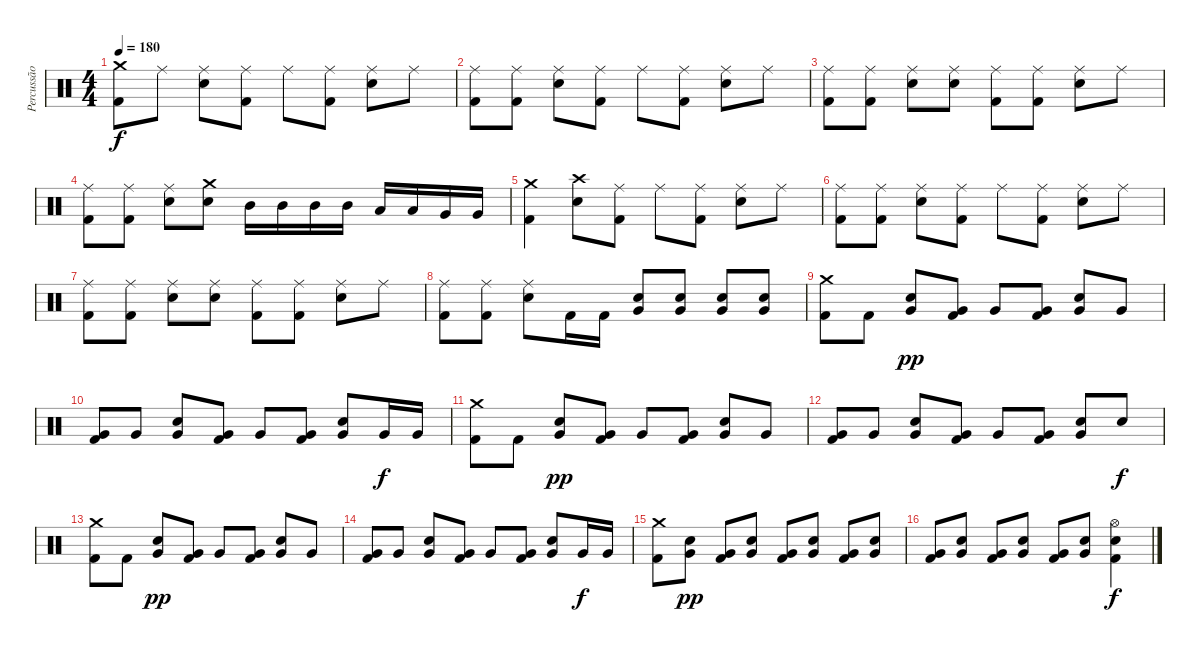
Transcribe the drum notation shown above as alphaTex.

\track ("Percussão" "Percussão") {instrument percussion}
\staff {score}
\articulation defaults
\ts (4 4)
\tempo 180
\clef neutral
\ks c
("Crash medium (hit)" "Kick (hit) 2").8{dy f} "Ride (middle)".8 ("Ride (middle)" "Electric Snare (hit)").8 ("Ride (middle)" "Kick (hit) 2").8 "Ride (middle)".8 ("Ride (middle)" "Kick (hit) 2").8 ("Ride (middle)" "Electric Snare (hit)").8 "Ride (middle)".8 |
("Ride (middle)" "Kick (hit) 2").8 ("Ride (middle)" "Kick (hit) 2").8 ("Ride (middle)" "Electric Snare (hit)").8 ("Ride (middle)" "Kick (hit) 2").8 "Ride (middle)".8 ("Ride (middle)" "Kick (hit) 2").8 ("Ride (middle)" "Electric Snare (hit)").8 "Ride (middle)".8 |
("Ride (middle)" "Kick (hit) 2").8 ("Ride (middle)" "Kick (hit) 2").8 ("Ride (middle)" "Electric Snare (hit)").8 ("Ride (middle)" "Electric Snare (hit)").8 ("Ride (middle)" "Kick (hit) 2").8 ("Ride (middle)" "Kick (hit) 2").8 ("Ride (middle)" "Electric Snare (hit)").8 "Ride (middle)".8 |
("Ride (middle)" "Kick (hit) 2").8 ("Ride (middle)" "Kick (hit) 2").8 ("Ride (middle)" "Electric Snare (hit)").8 ("Crash medium (hit)" "Electric Snare (hit)").8 "Mid Tom (hit)".16 "Mid Tom (hit)".16 "Mid Tom (hit)".16 "Mid Tom (hit)".16 "Low Tom (hit)".16 "Low Tom (hit)".16 "Very Low Tom (hit)".16 "Very Low Tom (hit)".16 |
("Crash medium (hit)" "Kick (hit) 2").4 ("Crash high (hit)" "Electric Snare (hit)").8 ("Ride (middle)" "Kick (hit) 2").8 "Ride (middle)".8 ("Ride (middle)" "Kick (hit) 2").8 ("Ride (middle)" "Electric Snare (hit)").8 "Ride (middle)".8 |
("Ride (middle)" "Kick (hit) 2").8 ("Ride (middle)" "Kick (hit) 2").8 ("Ride (middle)" "Electric Snare (hit)").8 ("Ride (middle)" "Kick (hit) 2").8 "Ride (middle)".8 ("Ride (middle)" "Kick (hit) 2").8 ("Ride (middle)" "Electric Snare (hit)").8 "Ride (middle)".8 |
("Ride (middle)" "Kick (hit) 2").8 ("Ride (middle)" "Kick (hit) 2").8 ("Ride (middle)" "Electric Snare (hit)").8 ("Ride (middle)" "Electric Snare (hit)").8 ("Ride (middle)" "Kick (hit) 2").8 ("Ride (middle)" "Kick (hit) 2").8 ("Ride (middle)" "Electric Snare (hit)").8 "Ride (middle)".8 |
("Ride (middle)" "Kick (hit) 2").8 ("Ride (middle)" "Kick (hit) 2").8 ("Ride (middle)" "Electric Snare (hit)").8 "Kick (hit) 2".16 "Kick (hit) 2".16 ("Electric Snare (hit)" "Very Low Tom (hit)").8 ("Electric Snare (hit)" "Very Low Tom (hit)").8 ("Electric Snare (hit)" "Very Low Tom (hit)").8 ("Electric Snare (hit)" "Very Low Tom (hit)").8 |
("Crash medium (hit)" "Kick (hit) 2").8 "Kick (hit) 2".8 ("Very Low Tom (hit)" "Electric Snare (hit)").8{dy pp} ("Very Low Tom (hit)" "Kick (hit) 2").8 "Very Low Tom (hit)".8 ("Very Low Tom (hit)" "Kick (hit) 2").8 ("Very Low Tom (hit)" "Electric Snare (hit)").8 "Very Low Tom (hit)".8 |
("Very Low Tom (hit)" "Kick (hit) 2").8 "Very Low Tom (hit)".8 ("Very Low Tom (hit)" "Electric Snare (hit)").8 ("Very Low Tom (hit)" "Kick (hit) 2").8 "Very Low Tom (hit)".8 ("Very Low Tom (hit)" "Kick (hit) 2").8 ("Very Low Tom (hit)" "Electric Snare (hit)").8 "Very Low Tom (hit)".16{dy f} "Very Low Tom (hit)".16 |
("Crash medium (hit)" "Kick (hit) 2").8 "Kick (hit) 2".8 ("Very Low Tom (hit)" "Electric Snare (hit)").8{dy pp} ("Very Low Tom (hit)" "Kick (hit) 2").8 "Very Low Tom (hit)".8 ("Very Low Tom (hit)" "Kick (hit) 2").8 ("Very Low Tom (hit)" "Electric Snare (hit)").8 "Very Low Tom (hit)".8 |
("Very Low Tom (hit)" "Kick (hit) 2").8 "Very Low Tom (hit)".8 ("Very Low Tom (hit)" "Electric Snare (hit)").8 ("Very Low Tom (hit)" "Kick (hit) 2").8 "Very Low Tom (hit)".8 ("Very Low Tom (hit)" "Kick (hit) 2").8 ("Very Low Tom (hit)" "Electric Snare (hit)").8 "Electric Snare (hit)".8{dy f} |
("Crash medium (hit)" "Kick (hit) 2").8 "Kick (hit) 2".8 ("Very Low Tom (hit)" "Electric Snare (hit)").8{dy pp} ("Very Low Tom (hit)" "Kick (hit) 2").8 "Very Low Tom (hit)".8 ("Very Low Tom (hit)" "Kick (hit) 2").8 ("Very Low Tom (hit)" "Electric Snare (hit)").8 "Very Low Tom (hit)".8 |
("Very Low Tom (hit)" "Kick (hit) 2").8 "Very Low Tom (hit)".8 ("Very Low Tom (hit)" "Electric Snare (hit)").8 ("Very Low Tom (hit)" "Kick (hit) 2").8 "Very Low Tom (hit)".8 ("Very Low Tom (hit)" "Kick (hit) 2").8 ("Very Low Tom (hit)" "Electric Snare (hit)").8 "Very Low Tom (hit)".16{dy f} "Very Low Tom (hit)".16 |
("Crash medium (hit)" "Kick (hit) 2").8 ("Very Low Tom (hit)" "Electric Snare (hit)").8{dy pp} ("Very Low Tom (hit)" "Kick (hit) 2").8 ("Very Low Tom (hit)" "Electric Snare (hit)").8 ("Very Low Tom (hit)" "Kick (hit) 2").8 ("Very Low Tom (hit)" "Electric Snare (hit)").8 ("Very Low Tom (hit)" "Kick (hit) 2").8 ("Very Low Tom (hit)" "Electric Snare (hit)").8 |
("Very Low Tom (hit)" "Kick (hit) 2").8 ("Very Low Tom (hit)" "Electric Snare (hit)").8 ("Very Low Tom (hit)" "Kick (hit) 2").8 ("Very Low Tom (hit)" "Electric Snare (hit)").8 ("Very Low Tom (hit)" "Kick (hit) 2").8 ("Very Low Tom (hit)" "Electric Snare (hit)").8 ("Hi-Hat (open)" "Electric Snare (hit)" "Kick (hit) 2").4{dy f}
